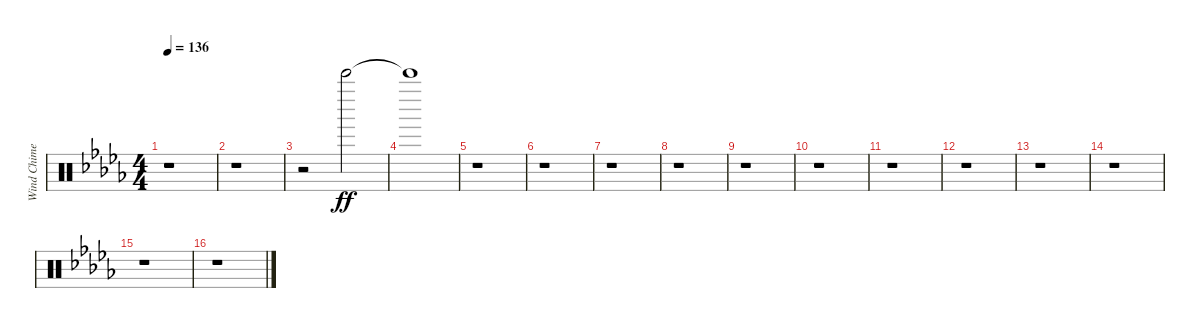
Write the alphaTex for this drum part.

\track ("Wind Chimes" "Wind Chime") {instrument percussion}
\staff {score}
\articulation defaults
\ts (4 4)
\tempo 136
\clef neutral
\ks db
r.1{dy ff} |
r.1 |
r.2 "Bell Tree (hit)".2 |
"Bell Tree (hit)"{t}.1 |
r.1 |
r.1 |
r.1 |
r.1 |
r.1 |
r.1 |
r.1 |
r.1 |
r.1 |
r.1 |
r.1 |
r.1
